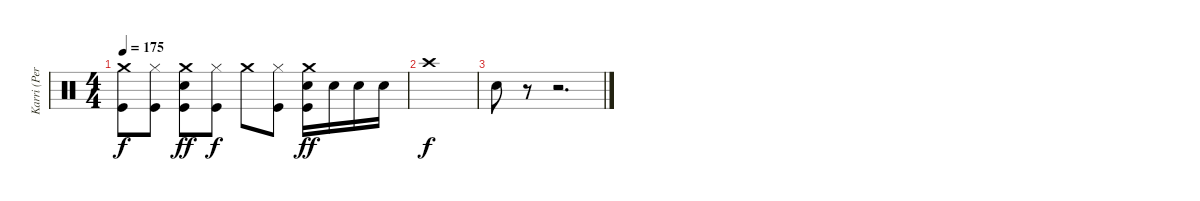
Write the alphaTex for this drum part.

\track ("Karri (Percussion)" "Karri (Per") {instrument percussion}
\staff {score}
\articulation defaults
\ts (4 4)
\tempo 175
\clef neutral
\ks c
("Crash medium (hit)" "Kick (hit)").8{dy f} ("Hi-Hat (closed)" "Kick (hit)").8 ("Crash medium (hit)" "Snare (hit) 2" "Kick (hit)").8{dy ff} ("Hi-Hat (closed)" "Kick (hit)").8{dy f} "Crash medium (hit)".8 ("Hi-Hat (closed)" "Kick (hit)").8 ("Crash medium (hit)" "Snare (hit) 2" "Kick (hit)").16{dy ff} "Snare (hit) 2".16 "Snare (hit) 2".16 "Snare (hit) 2".16 |
"Crash high (hit)".1{dy f} |
"Snare (hit) 2".8 r.8 r.2{d}
